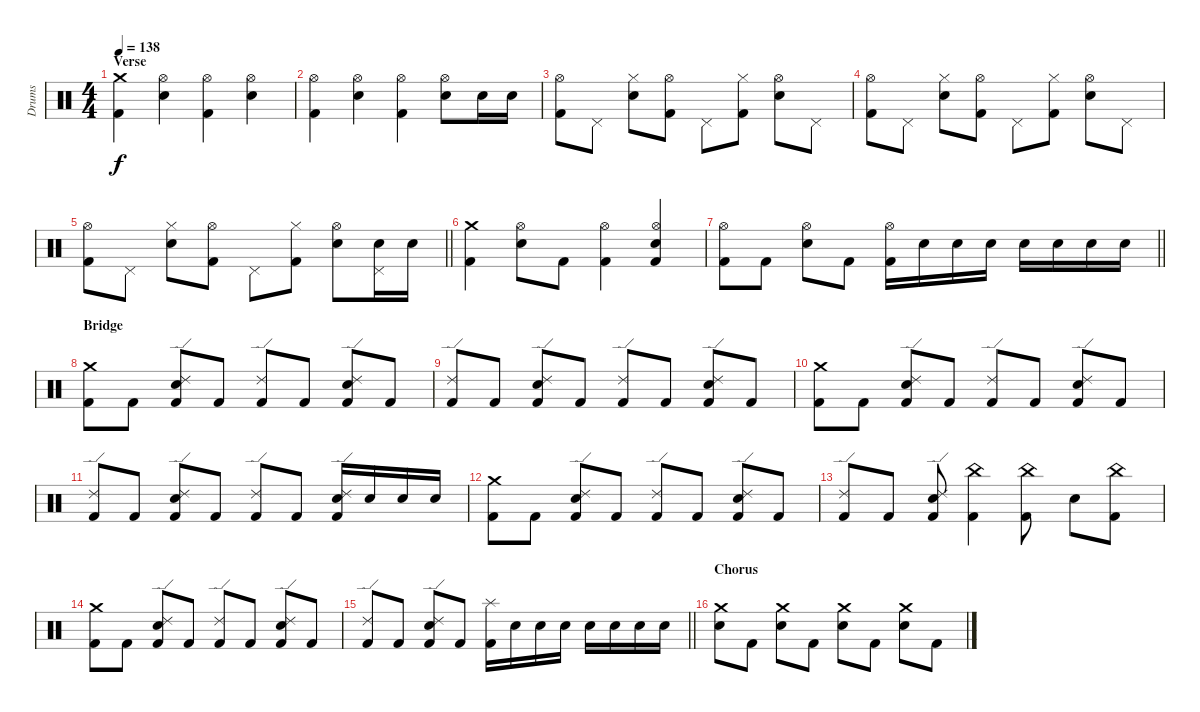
\track ("Drums" "Drums") {instrument percussion}
\staff {score}
\articulation defaults
\ts (4 4)
\section ("" "Verse")
\tempo 138
\clef neutral
\ks c
("Crash medium (hit)" "Kick (hit) 2").4{dy f} ("Hi-Hat (open)" "Snare (hit) 2").4 ("Hi-Hat (open)" "Kick (hit) 2").4 ("Hi-Hat (open)" "Snare (hit) 2").4 |
("Hi-Hat (open)" "Kick (hit) 2").4 ("Hi-Hat (open)" "Snare (hit) 2").4 ("Hi-Hat (open)" "Kick (hit) 2").4 ("Hi-Hat (open)" "Snare (hit) 2").8 "Snare (hit) 2".16 "Snare (hit) 2".16 |
("Hi-Hat (open)" "Kick (hit) 2").8 "Pedal Hi-Hat (hit)".8 ("Hi-Hat (closed)" "Snare (hit) 2").8 ("Hi-Hat (open)" "Kick (hit) 2").8 "Pedal Hi-Hat (hit)".8 ("Hi-Hat (closed)" "Kick (hit) 2").8 ("Hi-Hat (open)" "Snare (hit) 2").8 "Pedal Hi-Hat (hit)".8 |
("Hi-Hat (open)" "Kick (hit) 2").8 "Pedal Hi-Hat (hit)".8 ("Hi-Hat (closed)" "Snare (hit) 2").8 ("Hi-Hat (open)" "Kick (hit) 2").8 "Pedal Hi-Hat (hit)".8 ("Hi-Hat (closed)" "Kick (hit) 2").8 ("Hi-Hat (open)" "Snare (hit) 2").8 "Pedal Hi-Hat (hit)".8 |
\barLineRight lightlight
("Hi-Hat (open)" "Kick (hit) 2").8 "Pedal Hi-Hat (hit)".8 ("Hi-Hat (closed)" "Snare (hit) 2").8 ("Hi-Hat (open)" "Kick (hit) 2").8 "Pedal Hi-Hat (hit)".8 ("Hi-Hat (closed)" "Kick (hit) 2").8 ("Hi-Hat (open)" "Snare (hit) 2").8 ("Pedal Hi-Hat (hit)" "Snare (hit) 2").16 "Snare (hit) 2".16 |
("Crash medium (hit)" "Kick (hit) 2").4 ("Hi-Hat (open)" "Snare (hit) 2").8 "Kick (hit) 2".8 ("Hi-Hat (open)" "Kick (hit) 2").4 ("Hi-Hat (open)" "Snare (hit) 2" "Kick (hit) 2").4 |
\barLineRight lightlight
("Hi-Hat (open)" "Kick (hit) 2").8 "Kick (hit) 2".8 ("Hi-Hat (open)" "Snare (hit) 2").8 "Kick (hit) 2".8 ("Hi-Hat (open)" "Kick (hit) 2").16 "Snare (hit) 2".16 "Snare (hit) 2".16 "Snare (hit) 2".16 "Snare (hit) 2".16 "Snare (hit) 2".16 "Snare (hit) 2".16 "Snare (hit) 2".16 |
\section ("" "Bridge")
("Crash medium (hit)" "Kick (hit) 2").8 "Kick (hit) 2".8 ("Ride (edge) 2" "Snare (hit) 2" "Kick (hit) 2").8 "Kick (hit) 2".8 ("Ride (edge) 2" "Kick (hit) 2").8 "Kick (hit) 2".8 ("Ride (edge) 2" "Snare (hit) 2" "Kick (hit) 2").8 "Kick (hit) 2".8 |
("Ride (edge) 2" "Kick (hit) 2").8 "Kick (hit) 2".8 ("Ride (edge) 2" "Snare (hit) 2" "Kick (hit) 2").8 "Kick (hit) 2".8 ("Ride (edge) 2" "Kick (hit) 2").8 "Kick (hit) 2".8 ("Ride (edge) 2" "Snare (hit) 2" "Kick (hit) 2").8 "Kick (hit) 2".8 |
("Crash medium (hit)" "Kick (hit) 2").8 "Kick (hit) 2".8 ("Ride (edge) 2" "Snare (hit) 2" "Kick (hit) 2").8 "Kick (hit) 2".8 ("Ride (edge) 2" "Kick (hit) 2").8 "Kick (hit) 2".8 ("Ride (edge) 2" "Snare (hit) 2" "Kick (hit) 2").8 "Kick (hit) 2".8 |
("Ride (edge) 2" "Kick (hit) 2").8 "Kick (hit) 2".8 ("Ride (edge) 2" "Snare (hit) 2" "Kick (hit) 2").8 "Kick (hit) 2".8 ("Ride (edge) 2" "Kick (hit) 2").8 "Kick (hit) 2".8 ("Ride (edge) 2" "Snare (hit) 2" "Kick (hit) 2").16 "Snare (hit) 2".16 "Snare (hit) 2".16 "Snare (hit) 2".16 |
("Crash medium (hit)" "Kick (hit) 2").8 "Kick (hit) 2".8 ("Ride (edge) 2" "Snare (hit) 2" "Kick (hit) 2").8 "Kick (hit) 2".8 ("Ride (edge) 2" "Kick (hit) 2").8 "Kick (hit) 2".8 ("Ride (edge) 2" "Snare (hit) 2" "Kick (hit) 2").8 "Kick (hit) 2".8 |
("Ride (edge) 2" "Kick (hit) 2").8 "Kick (hit) 2".8 ("Ride (edge) 2" "Snare (hit) 2" "Kick (hit) 2").8 ("China (hit)" "Kick (hit) 2").4 ("China (hit)" "Kick (hit) 2").8 "Snare (hit) 2".8 ("China (hit)" "Kick (hit) 2").8 |
("Crash medium (hit)" "Kick (hit) 2").8 "Kick (hit) 2".8 ("Ride (edge) 2" "Snare (hit) 2" "Kick (hit) 2").8 "Kick (hit) 2".8 ("Ride (edge) 2" "Kick (hit) 2").8 "Kick (hit) 2".8 ("Ride (edge) 2" "Snare (hit) 2" "Kick (hit) 2").8 "Kick (hit) 2".8 |
\barLineRight lightlight
("Ride (edge) 2" "Kick (hit) 2").8 "Kick (hit) 2".8 ("Ride (edge) 2" "Snare (hit) 2" "Kick (hit) 2").8 "Kick (hit) 2".8 ("Splash (hit)" "Kick (hit) 2").16 "Snare (hit) 2".16 "Snare (hit) 2".16 "Snare (hit) 2".16 "Snare (hit) 2".16 "Snare (hit) 2".16 "Snare (hit) 2".16 "Snare (hit) 2".16 |
\section ("" "Chorus")
("Crash medium (hit)" "Snare (hit) 2").8 "Kick (hit) 2".8 ("Crash medium (hit)" "Snare (hit) 2").8 "Kick (hit) 2".8 ("Crash medium (hit)" "Snare (hit) 2").8 "Kick (hit) 2".8 ("Crash medium (hit)" "Snare (hit) 2").8 "Kick (hit) 2".8
